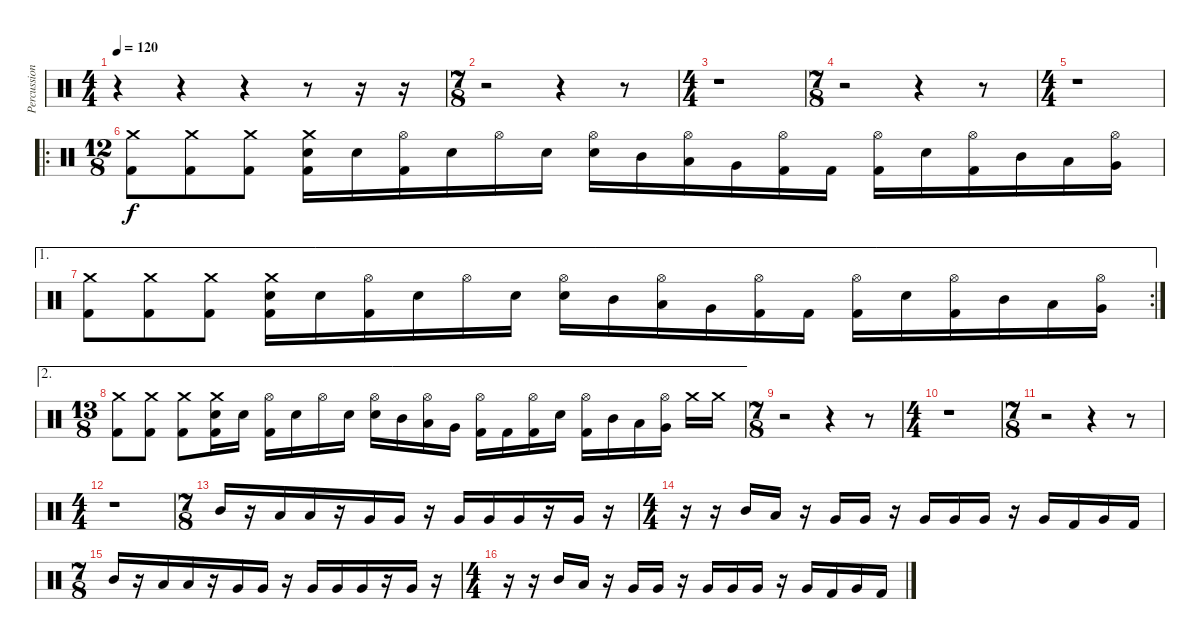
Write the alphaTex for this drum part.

\track ("Percussion" "Percussion") {instrument percussion}
\staff {score}
\articulation defaults
\ts (4 4)
\tempo 120
\clef neutral
\ks c
r.4{dy f} r.4 r.4 r.8 r.16 r.16 |
\ts (7 8)
r.2 r.4 r.8 |
\ts (4 4)
r.1 |
\ts (7 8)
r.2 r.4 r.8 |
\ts (4 4)
r.1 |
\ro
\ts (12 8)
("Crash medium (hit)" "Kick (hit) 2").8 ("Crash medium (hit)" "Kick (hit) 2").8 ("Crash medium (hit)" "Kick (hit) 2").8 ("Crash medium (hit)" "Snare (hit) 2" "Kick (hit) 2").16 "Snare (hit) 2".16 ("Hi-Hat (open)" "Kick (hit) 2").16 "Snare (hit) 2".16 "Hi-Hat (open)".16 "Snare (hit) 2".16 ("Hi-Hat (open)" "Snare (hit) 2").16 "Mid Tom (hit)".16 ("Hi-Hat (open)" "Low Tom (hit)").16 "Very Low Tom (hit)".16 ("Hi-Hat (open)" "Kick (hit) 2").16 "Kick (hit) 2".16 ("Hi-Hat (open)" "Kick (hit) 2").16 "Snare (hit) 2".16 ("Hi-Hat (open)" "Kick (hit) 2").16 "Mid Tom (hit)".16 "Low Tom (hit)".16 ("Hi-Hat (open)" "Very Low Tom (hit)").16 |
\ae 1
\rc 2
("Crash medium (hit)" "Kick (hit) 2").8 ("Crash medium (hit)" "Kick (hit) 2").8 ("Crash medium (hit)" "Kick (hit) 2").8 ("Crash medium (hit)" "Snare (hit) 2" "Kick (hit) 2").16 "Snare (hit) 2".16 ("Hi-Hat (open)" "Kick (hit) 2").16 "Snare (hit) 2".16 "Hi-Hat (open)".16 "Snare (hit) 2".16 ("Hi-Hat (open)" "Snare (hit) 2").16 "Mid Tom (hit)".16 ("Hi-Hat (open)" "Low Tom (hit)").16 "Very Low Tom (hit)".16 ("Hi-Hat (open)" "Kick (hit) 2").16 "Kick (hit) 2".16 ("Hi-Hat (open)" "Kick (hit) 2").16 "Snare (hit) 2".16 ("Hi-Hat (open)" "Kick (hit) 2").16 "Mid Tom (hit)".16 "Low Tom (hit)".16 ("Hi-Hat (open)" "Very Low Tom (hit)").16 |
\ae 2
\ts (13 8)
("Crash medium (hit)" "Kick (hit) 2").8 ("Crash medium (hit)" "Kick (hit) 2").8 ("Crash medium (hit)" "Kick (hit) 2").8 ("Crash medium (hit)" "Snare (hit) 2" "Kick (hit) 2").16 "Snare (hit) 2".16 ("Hi-Hat (open)" "Kick (hit) 2").16 "Snare (hit) 2".16 "Hi-Hat (open)".16 "Snare (hit) 2".16 ("Hi-Hat (open)" "Snare (hit) 2").16 "Mid Tom (hit)".16 ("Hi-Hat (open)" "Low Tom (hit)").16 "Very Low Tom (hit)".16 ("Hi-Hat (open)" "Kick (hit) 2").16 "Kick (hit) 2".16 ("Hi-Hat (open)" "Kick (hit) 2").16 "Snare (hit) 2".16 ("Hi-Hat (open)" "Kick (hit) 2").16 "Mid Tom (hit)".16 "Low Tom (hit)".16 ("Hi-Hat (open)" "Very Low Tom (hit)").16 "Crash medium (hit)".16 "Crash medium (hit)".16 |
\ts (7 8)
r.2 r.4 r.8 |
\ts (4 4)
r.1 |
\ts (7 8)
r.2 r.4 r.8 |
\ts (4 4)
r.1 |
\ts (7 8)
"Mid Tom (hit)".16 r.16 "Low Tom (hit)".16 "Low Tom (hit)".16 r.16 "Very Low Tom (hit)".16 "Very Low Tom (hit)".16 r.16 "Very Low Tom (hit)".16 "Very Low Tom (hit)".16 "Very Low Tom (hit)".16 r.16 "Very Low Tom (hit)".16 r.16 |
\ts (4 4)
r.16 r.16 "Mid Tom (hit)".16 "Low Tom (hit)".16 r.16 "Very Low Tom (hit)".16 "Very Low Tom (hit)".16 r.16 "Very Low Tom (hit)".16 "Very Low Tom (hit)".16 "Very Low Tom (hit)".16 r.16 "Very Low Tom (hit)".16 "Kick (hit) 2".16 "Very Low Tom (hit)".16 "Kick (hit) 2".16 |
\ts (7 8)
"Mid Tom (hit)".16 r.16 "Low Tom (hit)".16 "Low Tom (hit)".16 r.16 "Very Low Tom (hit)".16 "Very Low Tom (hit)".16 r.16 "Very Low Tom (hit)".16 "Very Low Tom (hit)".16 "Very Low Tom (hit)".16 r.16 "Very Low Tom (hit)".16 r.16 |
\ts (4 4)
r.16 r.16 "Mid Tom (hit)".16 "Low Tom (hit)".16 r.16 "Very Low Tom (hit)".16 "Very Low Tom (hit)".16 r.16 "Very Low Tom (hit)".16 "Very Low Tom (hit)".16 "Very Low Tom (hit)".16 r.16 "Very Low Tom (hit)".16 "Kick (hit) 2".16 "Very Low Tom (hit)".16 "Kick (hit) 2".16
